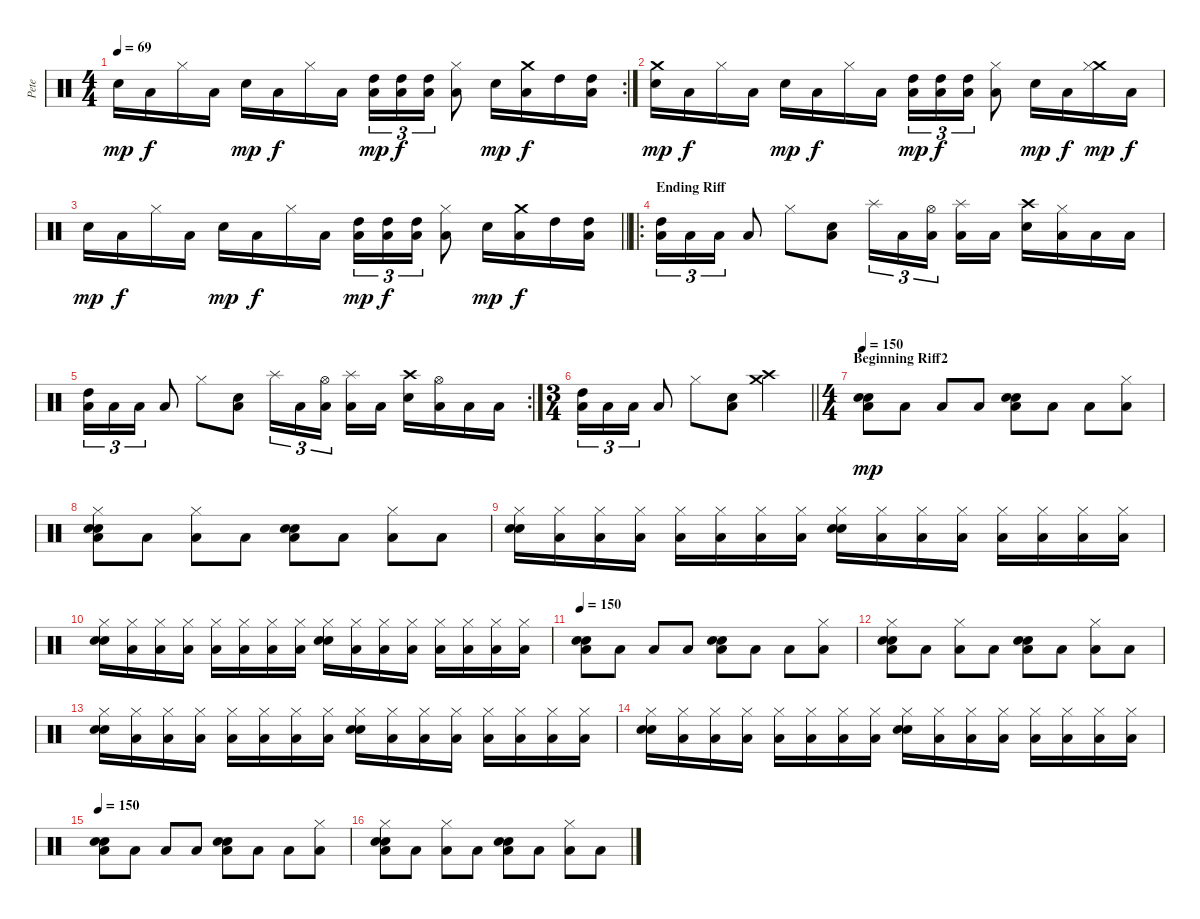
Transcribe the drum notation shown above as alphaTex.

\track ("Pete" "Pete") {instrument percussion}
\staff {score}
\articulation defaults
\rc 2
\ts (4 4)
\tempo 69
\clef neutral
\ks c "Electric Snare (hit)".16{dy mp} "Low Floor Tom (hit)".16{dy f} "Hi-Hat (closed)".16 "Low Floor Tom (hit)".16 "Electric Snare (hit)".16{dy mp} "Low Floor Tom (hit)".16{dy f} "Hi-Hat (closed)".16 "Low Floor Tom (hit)".16
("High Tom (hit)" "Low Floor Tom (hit)").16{tu (3 2) dy mp} ("High Tom (hit)" "Low Floor Tom (hit)").16{tu (3 2) dy f} ("High Tom (hit)" "Low Floor Tom (hit)").16{tu (3 2)} ("Hi-Hat (closed)" "Low Floor Tom (hit)").8 "Electric Snare (hit)".16{dy mp} ("Crash medium (hit)" "Low Floor Tom (hit)").16{dy f} "High Tom (hit)".16 ("High Tom (hit)" "Low Floor Tom (hit)").16 |
("Electric Snare (hit)" "Crash medium (hit)").16{dy mp} "Low Floor Tom (hit)".16{dy f} "Hi-Hat (closed)".16 "Low Floor Tom (hit)".16 "Electric Snare (hit)".16{dy mp} "Low Floor Tom (hit)".16{dy f} "Hi-Hat (closed)".16 "Low Floor Tom (hit)".16 ("High Tom (hit)" "Low Floor Tom (hit)").16{tu (3 2) dy mp} ("High Tom (hit)" "Low Floor Tom (hit)").16{tu (3 2) dy f} ("High Tom (hit)" "Low Floor Tom (hit)").16{tu (3 2)} ("Hi-Hat (closed)" "Low Floor Tom (hit)").8 "Electric Snare (hit)".16{dy mp} "Low Floor Tom (hit)".16{dy f} ("Crash medium (hit)" "Hi-Hat (closed)").16{dy mp} "Low Floor Tom (hit)".16{dy f} |
\barLineRight lightlight "Electric Snare (hit)".16{dy mp} "Low Floor Tom (hit)".16{dy f} "Hi-Hat (closed)".16 "Low Floor Tom (hit)".16 "Electric Snare (hit)".16{dy mp} "Low Floor Tom (hit)".16{dy f} "Hi-Hat (closed)".16 "Low Floor Tom (hit)".16
("High Tom (hit)" "Low Floor Tom (hit)").16{tu (3 2) dy mp} ("High Tom (hit)" "Low Floor Tom (hit)").16{tu (3 2) dy f} ("High Tom (hit)" "Low Floor Tom (hit)").16{tu (3 2)} ("Hi-Hat (closed)" "Low Floor Tom (hit)").8 "Electric Snare (hit)".16{dy mp} ("Crash medium (hit)" "Low Floor Tom (hit)").16{dy f} "High Tom (hit)".16 ("High Tom (hit)" "Low Floor Tom (hit)").16 |
\ro
\section ("" "Ending Riff")
("High Tom (hit)" "Low Floor Tom (hit)").16{tu (3 2)} "Low Floor Tom (hit)".16{tu (3 2)} "Low Floor Tom (hit)".16{tu (3 2)} "Low Floor Tom (hit)".8 "Hi-Hat (closed)".8 ("Electric Snare (hit)" "Low Floor Tom (hit)").8 "Splash (hit)".16{tu (3 2)} "Low Floor Tom (hit)".16{tu (3 2)} ("Hi-Hat (open)" "Low Floor Tom (hit)").16{tu (3 2) beam splitsecondary} ("Splash (hit)" "Low Floor Tom (hit)").16 "Low Floor Tom (hit)".16 ("Electric Snare (hit)" "Crash high (hit)").16 ("Hi-Hat (closed)" "Low Floor Tom (hit)").16 "Low Floor Tom (hit)".16 "Low Floor Tom (hit)".16 |
\rc 2
("High Tom (hit)" "Low Floor Tom (hit)").16{tu (3 2)} "Low Floor Tom (hit)".16{tu (3 2)} "Low Floor Tom (hit)".16{tu (3 2)} "Low Floor Tom (hit)".8 "Hi-Hat (closed)".8 ("Electric Snare (hit)" "Low Floor Tom (hit)").8 "Splash (hit)".16{tu (3 2)} "Low Floor Tom (hit)".16{tu (3 2)} ("Hi-Hat (open)" "Low Floor Tom (hit)").16{tu (3 2) beam splitsecondary} ("Splash (hit)" "Low Floor Tom (hit)").16 "Low Floor Tom (hit)".16 ("Electric Snare (hit)" "Crash high (hit)").16 ("Hi-Hat (open)" "Low Floor Tom (hit)").16 "Low Floor Tom (hit)".16 "Low Floor Tom (hit)".16 |
\ts (3 4)
\barLineRight lightlight
("High Tom (hit)" "Low Floor Tom (hit)").16{tu (3 2)} "Low Floor Tom (hit)".16{tu (3 2)} "Low Floor Tom (hit)".16{tu (3 2)} "Low Floor Tom (hit)".8 "Hi-Hat (closed)".8 ("Electric Snare (hit)" "Low Floor Tom (hit)").8 ("Crash high (hit)" "Crash medium (hit)").4 |
\ts (4 4)
\section ("" "Beginning Riff2")
\tempo 150
("Electric Snare (hit)" "Low Floor Tom (hit)" "Electric Snare (hit)").8{dy mp} "Low Floor Tom (hit)".8 "Low Floor Tom (hit)".8 "Low Floor Tom (hit)".8 ("Electric Snare (hit)" "Low Floor Tom (hit)" "Electric Snare (hit)").8 "Low Floor Tom (hit)".8 "Low Floor Tom (hit)".8 ("Hi-Hat (closed)" "Low Floor Tom (hit)").8 |
("Electric Snare (hit)" "Hi-Hat (closed)" "Low Floor Tom (hit)" "Electric Snare (hit)").8 "Low Floor Tom (hit)".8 ("Hi-Hat (closed)" "Low Floor Tom (hit)").8 "Low Floor Tom (hit)".8 ("Electric Snare (hit)" "Low Floor Tom (hit)" "Electric Snare (hit)").8 "Low Floor Tom (hit)".8 ("Hi-Hat (closed)" "Low Floor Tom (hit)").8 "Low Floor Tom (hit)".8 |
("Electric Snare (hit)" "Hi-Hat (closed)" "Electric Snare (hit)").16 ("Hi-Hat (closed)" "Low Floor Tom (hit)").16 ("Hi-Hat (closed)" "Low Floor Tom (hit)").16 ("Hi-Hat (closed)" "Low Floor Tom (hit)").16 ("Hi-Hat (closed)" "Low Floor Tom (hit)").16 ("Hi-Hat (closed)" "Low Floor Tom (hit)").16 ("Hi-Hat (closed)" "Low Floor Tom (hit)").16 ("Hi-Hat (closed)" "Low Floor Tom (hit)").16 ("Electric Snare (hit)" "Hi-Hat (closed)" "Electric Snare (hit)").16 ("Hi-Hat (closed)" "Low Floor Tom (hit)").16 ("Hi-Hat (closed)" "Low Floor Tom (hit)").16 ("Hi-Hat (closed)" "Low Floor Tom (hit)").16 ("Hi-Hat (closed)" "Low Floor Tom (hit)").16 ("Hi-Hat (closed)" "Low Floor Tom (hit)").16 ("Hi-Hat (closed)" "Low Floor Tom (hit)").16 ("Hi-Hat (closed)" "Low Floor Tom (hit)").16 |
("Electric Snare (hit)" "Hi-Hat (closed)" "Electric Snare (hit)").16 ("Hi-Hat (closed)" "Low Floor Tom (hit)").16 ("Hi-Hat (closed)" "Low Floor Tom (hit)").16 ("Hi-Hat (closed)" "Low Floor Tom (hit)").16 ("Hi-Hat (closed)" "Low Floor Tom (hit)").16 ("Hi-Hat (closed)" "Low Floor Tom (hit)").16 ("Hi-Hat (closed)" "Low Floor Tom (hit)").16 ("Hi-Hat (closed)" "Low Floor Tom (hit)").16 ("Electric Snare (hit)" "Hi-Hat (closed)" "Electric Snare (hit)").16 ("Hi-Hat (closed)" "Low Floor Tom (hit)").16 ("Hi-Hat (closed)" "Low Floor Tom (hit)").16 ("Hi-Hat (closed)" "Low Floor Tom (hit)").16 ("Hi-Hat (closed)" "Low Floor Tom (hit)").16 ("Hi-Hat (closed)" "Low Floor Tom (hit)").16 ("Hi-Hat (closed)" "Low Floor Tom (hit)").16 ("Hi-Hat (closed)" "Low Floor Tom (hit)").16 |
\tempo 150
("Electric Snare (hit)" "Low Floor Tom (hit)" "Electric Snare (hit)").8 "Low Floor Tom (hit)".8 "Low Floor Tom (hit)".8 "Low Floor Tom (hit)".8 ("Electric Snare (hit)" "Low Floor Tom (hit)" "Electric Snare (hit)").8 "Low Floor Tom (hit)".8 "Low Floor Tom (hit)".8 ("Hi-Hat (closed)" "Low Floor Tom (hit)").8 |
("Electric Snare (hit)" "Hi-Hat (closed)" "Low Floor Tom (hit)" "Electric Snare (hit)").8 "Low Floor Tom (hit)".8 ("Hi-Hat (closed)" "Low Floor Tom (hit)").8 "Low Floor Tom (hit)".8 ("Electric Snare (hit)" "Low Floor Tom (hit)" "Electric Snare (hit)").8 "Low Floor Tom (hit)".8 ("Hi-Hat (closed)" "Low Floor Tom (hit)").8 "Low Floor Tom (hit)".8 |
("Electric Snare (hit)" "Hi-Hat (closed)" "Electric Snare (hit)").16 ("Hi-Hat (closed)" "Low Floor Tom (hit)").16 ("Hi-Hat (closed)" "Low Floor Tom (hit)").16 ("Hi-Hat (closed)" "Low Floor Tom (hit)").16 ("Hi-Hat (closed)" "Low Floor Tom (hit)").16 ("Hi-Hat (closed)" "Low Floor Tom (hit)").16 ("Hi-Hat (closed)" "Low Floor Tom (hit)").16 ("Hi-Hat (closed)" "Low Floor Tom (hit)").16 ("Electric Snare (hit)" "Hi-Hat (closed)" "Electric Snare (hit)").16 ("Hi-Hat (closed)" "Low Floor Tom (hit)").16 ("Hi-Hat (closed)" "Low Floor Tom (hit)").16 ("Hi-Hat (closed)" "Low Floor Tom (hit)").16 ("Hi-Hat (closed)" "Low Floor Tom (hit)").16 ("Hi-Hat (closed)" "Low Floor Tom (hit)").16 ("Hi-Hat (closed)" "Low Floor Tom (hit)").16 ("Hi-Hat (closed)" "Low Floor Tom (hit)").16 |
("Electric Snare (hit)" "Hi-Hat (closed)" "Electric Snare (hit)").16 ("Hi-Hat (closed)" "Low Floor Tom (hit)").16 ("Hi-Hat (closed)" "Low Floor Tom (hit)").16 ("Hi-Hat (closed)" "Low Floor Tom (hit)").16 ("Hi-Hat (closed)" "Low Floor Tom (hit)").16 ("Hi-Hat (closed)" "Low Floor Tom (hit)").16 ("Hi-Hat (closed)" "Low Floor Tom (hit)").16 ("Hi-Hat (closed)" "Low Floor Tom (hit)").16 ("Electric Snare (hit)" "Hi-Hat (closed)" "Electric Snare (hit)").16 ("Hi-Hat (closed)" "Low Floor Tom (hit)").16 ("Hi-Hat (closed)" "Low Floor Tom (hit)").16 ("Hi-Hat (closed)" "Low Floor Tom (hit)").16 ("Hi-Hat (closed)" "Low Floor Tom (hit)").16 ("Hi-Hat (closed)" "Low Floor Tom (hit)").16 ("Hi-Hat (closed)" "Low Floor Tom (hit)").16 ("Hi-Hat (closed)" "Low Floor Tom (hit)").16 |
\tempo 150
("Electric Snare (hit)" "Low Floor Tom (hit)" "Electric Snare (hit)").8 "Low Floor Tom (hit)".8 "Low Floor Tom (hit)".8 "Low Floor Tom (hit)".8 ("Electric Snare (hit)" "Low Floor Tom (hit)" "Electric Snare (hit)").8 "Low Floor Tom (hit)".8 "Low Floor Tom (hit)".8 ("Hi-Hat (closed)" "Low Floor Tom (hit)").8 |
("Electric Snare (hit)" "Hi-Hat (closed)" "Low Floor Tom (hit)" "Electric Snare (hit)").8 "Low Floor Tom (hit)".8 ("Hi-Hat (closed)" "Low Floor Tom (hit)").8 "Low Floor Tom (hit)".8 ("Electric Snare (hit)" "Low Floor Tom (hit)" "Electric Snare (hit)").8 "Low Floor Tom (hit)".8 ("Hi-Hat (closed)" "Low Floor Tom (hit)").8 "Low Floor Tom (hit)".8
